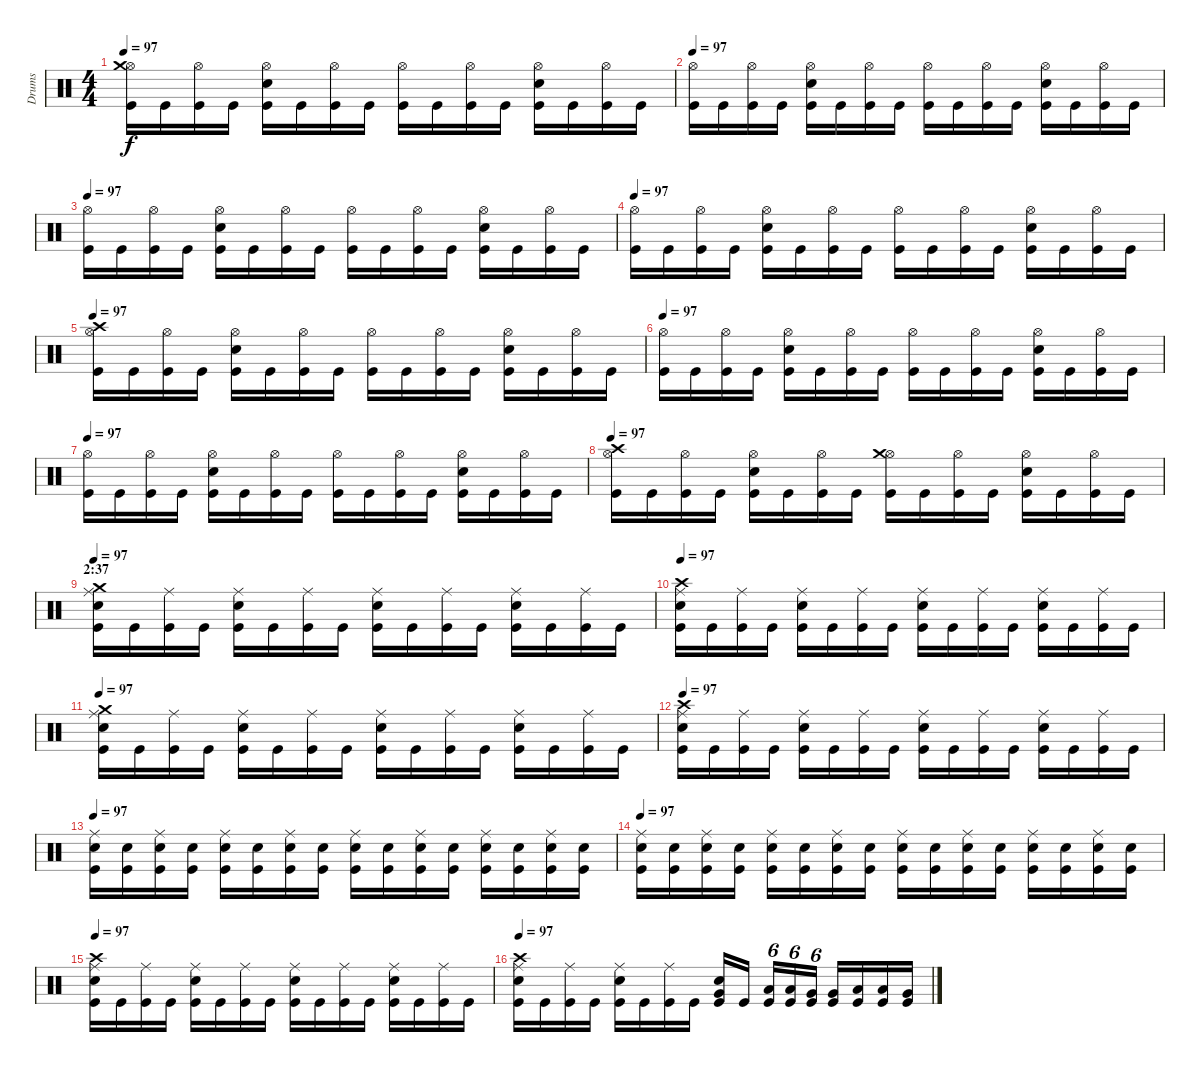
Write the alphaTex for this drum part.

\track ("Drums" "Drums") {instrument percussion}
\staff {score}
\articulation defaults
\ts (4 4)
\tempo 97
\clef neutral
\ks c
("Kick (hit)" "Hi-Hat (open)" "Crash medium (hit)").16{dy f} "Kick (hit)".16 ("Kick (hit)" "Hi-Hat (open)").16 "Kick (hit)".16 ("Kick (hit)" "Electric Snare (hit)" "Hi-Hat (open)").16 "Kick (hit)".16 ("Kick (hit)" "Hi-Hat (open)").16 "Kick (hit)".16 ("Kick (hit)" "Hi-Hat (open)").16 "Kick (hit)".16 ("Kick (hit)" "Hi-Hat (open)").16 "Kick (hit)".16 ("Kick (hit)" "Electric Snare (hit)" "Hi-Hat (open)").16 "Kick (hit)".16 ("Kick (hit)" "Hi-Hat (open)").16 "Kick (hit)".16 |
\tempo 97
("Kick (hit)" "Hi-Hat (open)").16 "Kick (hit)".16 ("Kick (hit)" "Hi-Hat (open)").16 "Kick (hit)".16 ("Kick (hit)" "Electric Snare (hit)" "Hi-Hat (open)").16 "Kick (hit)".16 ("Kick (hit)" "Hi-Hat (open)").16 "Kick (hit)".16 ("Kick (hit)" "Hi-Hat (open)").16 "Kick (hit)".16 ("Kick (hit)" "Hi-Hat (open)").16 "Kick (hit)".16 ("Kick (hit)" "Electric Snare (hit)" "Hi-Hat (open)").16 "Kick (hit)".16 ("Kick (hit)" "Hi-Hat (open)").16 "Kick (hit)".16 |
\tempo 97
("Kick (hit)" "Hi-Hat (open)").16 "Kick (hit)".16 ("Kick (hit)" "Hi-Hat (open)").16 "Kick (hit)".16 ("Kick (hit)" "Electric Snare (hit)" "Hi-Hat (open)").16 "Kick (hit)".16 ("Kick (hit)" "Hi-Hat (open)").16 "Kick (hit)".16 ("Kick (hit)" "Hi-Hat (open)").16 "Kick (hit)".16 ("Kick (hit)" "Hi-Hat (open)").16 "Kick (hit)".16 ("Kick (hit)" "Electric Snare (hit)" "Hi-Hat (open)").16 "Kick (hit)".16 ("Kick (hit)" "Hi-Hat (open)").16 "Kick (hit)".16 |
\tempo 97
("Kick (hit)" "Hi-Hat (open)").16 "Kick (hit)".16 ("Kick (hit)" "Hi-Hat (open)").16 "Kick (hit)".16 ("Kick (hit)" "Electric Snare (hit)" "Hi-Hat (open)").16 "Kick (hit)".16 ("Kick (hit)" "Hi-Hat (open)").16 "Kick (hit)".16 ("Kick (hit)" "Hi-Hat (open)").16 "Kick (hit)".16 ("Kick (hit)" "Hi-Hat (open)").16 "Kick (hit)".16 ("Kick (hit)" "Electric Snare (hit)" "Hi-Hat (open)").16 "Kick (hit)".16 ("Kick (hit)" "Hi-Hat (open)").16 "Kick (hit)".16 |
\tempo 97
("Kick (hit)" "Hi-Hat (open)" "Crash high (hit)").16 "Kick (hit)".16 ("Kick (hit)" "Hi-Hat (open)").16 "Kick (hit)".16 ("Kick (hit)" "Electric Snare (hit)" "Hi-Hat (open)").16 "Kick (hit)".16 ("Kick (hit)" "Hi-Hat (open)").16 "Kick (hit)".16 ("Kick (hit)" "Hi-Hat (open)").16 "Kick (hit)".16 ("Kick (hit)" "Hi-Hat (open)").16 "Kick (hit)".16 ("Kick (hit)" "Electric Snare (hit)" "Hi-Hat (open)").16 "Kick (hit)".16 ("Kick (hit)" "Hi-Hat (open)").16 "Kick (hit)".16 |
\tempo 97
("Kick (hit)" "Hi-Hat (open)").16 "Kick (hit)".16 ("Kick (hit)" "Hi-Hat (open)").16 "Kick (hit)".16 ("Kick (hit)" "Electric Snare (hit)" "Hi-Hat (open)").16 "Kick (hit)".16 ("Kick (hit)" "Hi-Hat (open)").16 "Kick (hit)".16 ("Kick (hit)" "Hi-Hat (open)").16 "Kick (hit)".16 ("Kick (hit)" "Hi-Hat (open)").16 "Kick (hit)".16 ("Kick (hit)" "Electric Snare (hit)" "Hi-Hat (open)").16 "Kick (hit)".16 ("Kick (hit)" "Hi-Hat (open)").16 "Kick (hit)".16 |
\tempo 97
("Kick (hit)" "Hi-Hat (open)").16 "Kick (hit)".16 ("Kick (hit)" "Hi-Hat (open)").16 "Kick (hit)".16 ("Kick (hit)" "Electric Snare (hit)" "Hi-Hat (open)").16 "Kick (hit)".16 ("Kick (hit)" "Hi-Hat (open)").16 "Kick (hit)".16 ("Kick (hit)" "Hi-Hat (open)").16 "Kick (hit)".16 ("Kick (hit)" "Hi-Hat (open)").16 "Kick (hit)".16 ("Kick (hit)" "Electric Snare (hit)" "Hi-Hat (open)").16 "Kick (hit)".16 ("Kick (hit)" "Hi-Hat (open)").16 "Kick (hit)".16 |
\tempo 97
("Kick (hit)" "Hi-Hat (open)" "Crash high (hit)").16 "Kick (hit)".16 ("Kick (hit)" "Hi-Hat (open)").16 "Kick (hit)".16 ("Kick (hit)" "Electric Snare (hit)" "Hi-Hat (open)").16 "Kick (hit)".16 ("Kick (hit)" "Hi-Hat (open)").16 "Kick (hit)".16 ("Kick (hit)" "Hi-Hat (open)" "Crash medium (hit)").16 "Kick (hit)".16 ("Kick (hit)" "Hi-Hat (open)").16 "Kick (hit)".16 ("Kick (hit)" "Electric Snare (hit)" "Hi-Hat (open)").16 "Kick (hit)".16 ("Kick (hit)" "Hi-Hat (open)").16 "Kick (hit)".16 |
\section ("" "2:37")
\tempo 100
\tempo 97
("Kick (hit)" "Electric Snare (hit)" "Ride (middle)" "Crash medium (hit)").16 "Kick (hit)".16 ("Kick (hit)" "Ride (middle)").16 "Kick (hit)".16 ("Kick (hit)" "Electric Snare (hit)" "Ride (middle)").16 "Kick (hit)".16 ("Kick (hit)" "Ride (middle)").16 "Kick (hit)".16 ("Kick (hit)" "Electric Snare (hit)" "Ride (middle)").16 "Kick (hit)".16 ("Kick (hit)" "Ride (middle)").16 "Kick (hit)".16 ("Kick (hit)" "Electric Snare (hit)" "Ride (middle)").16 "Kick (hit)".16 ("Kick (hit)" "Ride (middle)").16 "Kick (hit)".16 |
\tempo 100
\tempo 97
("Kick (hit)" "Electric Snare (hit)" "Ride (middle)" "Crash high (hit)").16 "Kick (hit)".16 ("Kick (hit)" "Ride (middle)").16 "Kick (hit)".16 ("Kick (hit)" "Electric Snare (hit)" "Ride (middle)").16 "Kick (hit)".16 ("Kick (hit)" "Ride (middle)").16 "Kick (hit)".16 ("Kick (hit)" "Electric Snare (hit)" "Ride (middle)").16 "Kick (hit)".16 ("Kick (hit)" "Ride (middle)").16 "Kick (hit)".16 ("Kick (hit)" "Electric Snare (hit)" "Ride (middle)").16 "Kick (hit)".16 ("Kick (hit)" "Ride (middle)").16 "Kick (hit)".16 |
\tempo 100
\tempo 97
("Kick (hit)" "Electric Snare (hit)" "Ride (middle)" "Crash medium (hit)").16 "Kick (hit)".16 ("Kick (hit)" "Ride (middle)").16 "Kick (hit)".16 ("Kick (hit)" "Electric Snare (hit)" "Ride (middle)").16 "Kick (hit)".16 ("Kick (hit)" "Ride (middle)").16 "Kick (hit)".16 ("Kick (hit)" "Electric Snare (hit)" "Ride (middle)").16 "Kick (hit)".16 ("Kick (hit)" "Ride (middle)").16 "Kick (hit)".16 ("Kick (hit)" "Electric Snare (hit)" "Ride (middle)").16 "Kick (hit)".16 ("Kick (hit)" "Ride (middle)").16 "Kick (hit)".16 |
\tempo 100
\tempo 97
("Kick (hit)" "Electric Snare (hit)" "Ride (middle)" "Crash high (hit)").16 "Kick (hit)".16 ("Kick (hit)" "Ride (middle)").16 "Kick (hit)".16 ("Kick (hit)" "Electric Snare (hit)" "Ride (middle)").16 "Kick (hit)".16 ("Kick (hit)" "Ride (middle)").16 "Kick (hit)".16 ("Kick (hit)" "Electric Snare (hit)" "Ride (middle)").16 "Kick (hit)".16 ("Kick (hit)" "Ride (middle)").16 "Kick (hit)".16 ("Kick (hit)" "Electric Snare (hit)" "Ride (middle)").16 "Kick (hit)".16 ("Kick (hit)" "Ride (middle)").16 "Kick (hit)".16 |
\tempo 100
\tempo 97
("Kick (hit)" "Electric Snare (hit)" "Ride (middle)").16 ("Kick (hit)" "Electric Snare (hit)").16 ("Kick (hit)" "Electric Snare (hit)" "Ride (middle)").16 ("Kick (hit)" "Electric Snare (hit)").16 ("Kick (hit)" "Electric Snare (hit)" "Ride (middle)").16 ("Kick (hit)" "Electric Snare (hit)").16 ("Kick (hit)" "Electric Snare (hit)" "Ride (middle)").16 ("Kick (hit)" "Electric Snare (hit)").16 ("Kick (hit)" "Electric Snare (hit)" "Ride (middle)").16 ("Kick (hit)" "Electric Snare (hit)").16 ("Kick (hit)" "Electric Snare (hit)" "Ride (middle)").16 ("Kick (hit)" "Electric Snare (hit)").16 ("Kick (hit)" "Electric Snare (hit)" "Ride (middle)").16 ("Kick (hit)" "Electric Snare (hit)").16 ("Kick (hit)" "Electric Snare (hit)" "Ride (middle)").16 ("Kick (hit)" "Electric Snare (hit)").16 |
\tempo 100
\tempo 97
("Kick (hit)" "Electric Snare (hit)" "Ride (middle)").16 ("Kick (hit)" "Electric Snare (hit)").16 ("Kick (hit)" "Electric Snare (hit)" "Ride (middle)").16 ("Kick (hit)" "Electric Snare (hit)").16 ("Kick (hit)" "Electric Snare (hit)" "Ride (middle)").16 ("Kick (hit)" "Electric Snare (hit)").16 ("Kick (hit)" "Electric Snare (hit)" "Ride (middle)").16 ("Kick (hit)" "Electric Snare (hit)").16 ("Kick (hit)" "Electric Snare (hit)" "Ride (middle)").16 ("Kick (hit)" "Electric Snare (hit)").16 ("Kick (hit)" "Electric Snare (hit)" "Ride (middle)").16 ("Kick (hit)" "Electric Snare (hit)").16 ("Kick (hit)" "Electric Snare (hit)" "Ride (middle)").16 ("Kick (hit)" "Electric Snare (hit)").16 ("Kick (hit)" "Electric Snare (hit)" "Ride (middle)").16 ("Kick (hit)" "Electric Snare (hit)").16 |
\tempo 100
\tempo 97
("Kick (hit)" "Electric Snare (hit)" "Ride (middle)" "Crash high (hit)").16 "Kick (hit)".16 ("Kick (hit)" "Ride (middle)").16 "Kick (hit)".16 ("Kick (hit)" "Electric Snare (hit)" "Ride (middle)").16 "Kick (hit)".16 ("Kick (hit)" "Ride (middle)").16 "Kick (hit)".16 ("Kick (hit)" "Electric Snare (hit)" "Ride (middle)").16 "Kick (hit)".16 ("Kick (hit)" "Ride (middle)").16 "Kick (hit)".16 ("Kick (hit)" "Electric Snare (hit)" "Ride (middle)").16 "Kick (hit)".16 ("Kick (hit)" "Ride (middle)").16 "Kick (hit)".16 |
\tempo 100
\tempo 97
("Kick (hit)" "Electric Snare (hit)" "Ride (middle)" "Crash high (hit)").16 "Kick (hit)".16 ("Kick (hit)" "Ride (middle)").16 "Kick (hit)".16 ("Kick (hit)" "Electric Snare (hit)" "Ride (middle)").16 "Kick (hit)".16 ("Kick (hit)" "Ride (middle)").16 "Kick (hit)".16 ("Kick (hit)" "Electric Snare (hit)" "Very Low Tom (hit)").16 "Kick (hit)".16 ("Kick (hit)" "Low Tom (hit)").16{tu (6 4)} ("Kick (hit)" "Low Tom (hit)").16{tu (6 4)} ("Kick (hit)" "Very Low Tom (hit)").16{tu (6 4)} ("Kick (hit)" "Very Low Tom (hit)").16 ("Kick (hit)" "Low Tom (hit)").16 ("Kick (hit)" "Low Tom (hit)").16 ("Kick (hit)" "Very Low Tom (hit)").16
